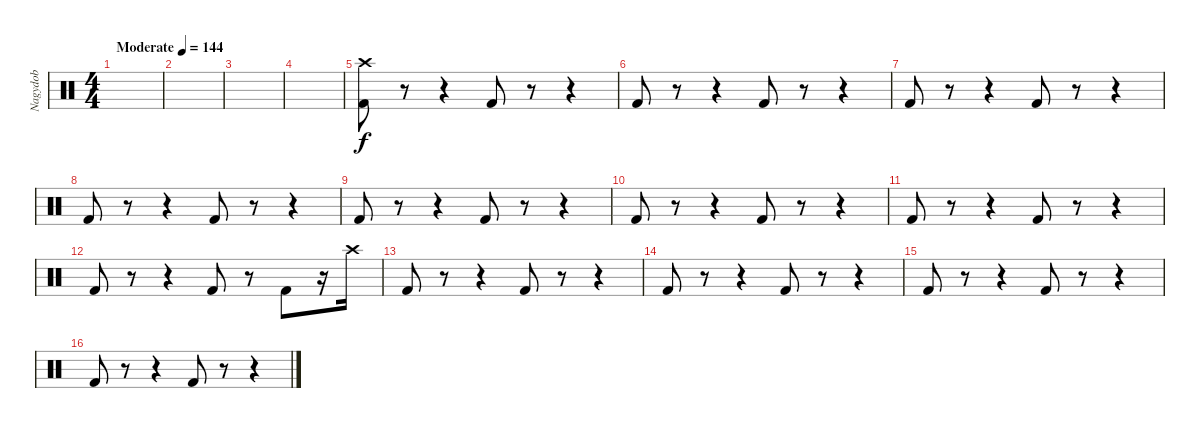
\track ("Nagydob" "Nagydob") {instrument percussion}
\staff {score}
\articulation defaults
\ts (4 4)
\tempo (144 "Moderate")
\clef neutral
\ks c
|
|
|
|
("Kick (hit) 2" "Crash high (hit)").8 r.8 r.4 "Kick (hit) 2".8 r.8 r.4 |
"Kick (hit) 2".8 r.8 r.4 "Kick (hit) 2".8 r.8 r.4 |
"Kick (hit) 2".8 r.8 r.4 "Kick (hit) 2".8 r.8 r.4 |
"Kick (hit) 2".8 r.8 r.4 "Kick (hit) 2".8 r.8 r.4 |
"Kick (hit) 2".8 r.8 r.4 "Kick (hit) 2".8 r.8 r.4 |
"Kick (hit) 2".8 r.8 r.4 "Kick (hit) 2".8 r.8 r.4 |
"Kick (hit) 2".8 r.8 r.4 "Kick (hit) 2".8 r.8 r.4 |
"Kick (hit) 2".8 r.8 r.4 "Kick (hit) 2".8 r.8 "Kick (hit) 2".8 r.16 "Crash high (hit)".16 |
"Kick (hit) 2".8 r.8 r.4 "Kick (hit) 2".8 r.8 r.4 |
"Kick (hit) 2".8 r.8 r.4 "Kick (hit) 2".8 r.8 r.4 |
"Kick (hit) 2".8 r.8 r.4 "Kick (hit) 2".8 r.8 r.4 |
"Kick (hit) 2".8 r.8 r.4 "Kick (hit) 2".8 r.8 r.4
